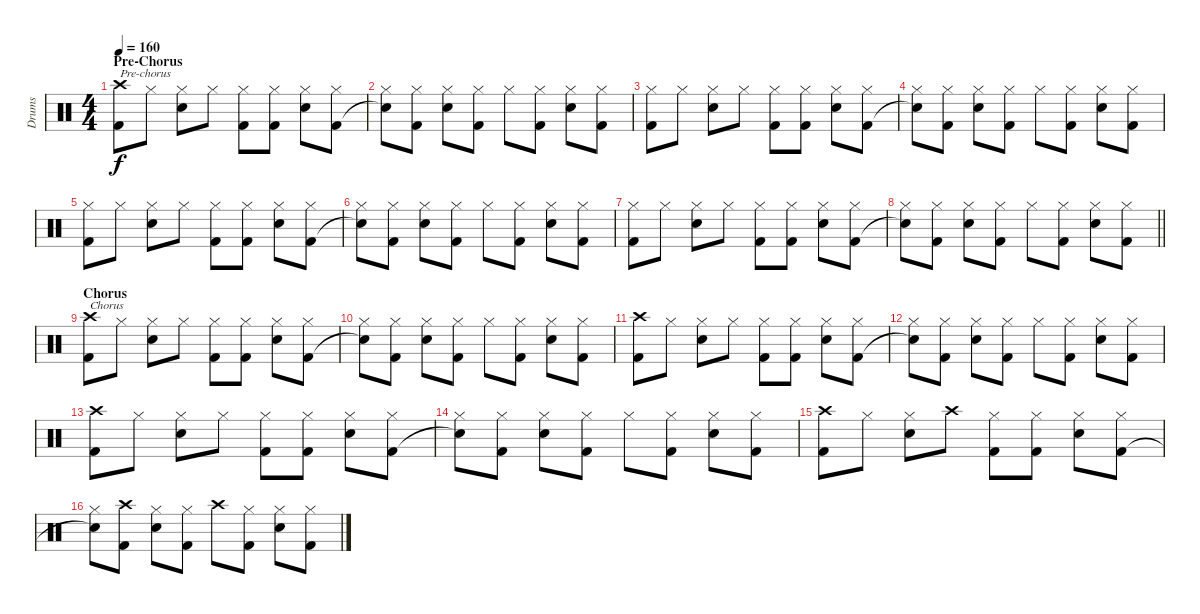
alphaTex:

\track ("Drums" "Drums") {instrument percussion}
\staff {score}
\articulation defaults
\ts (4 4)
\section ("" "Pre-Chorus")
\tempo 160
\clef neutral
\ks c
("Crash high (hit)" "Kick (hit) 2").8{txt "Pre-chorus" dy f} "Hi-Hat (closed)".8 ("Hi-Hat (closed)" "Electric Snare (hit)").8 "Hi-Hat (closed)".8 ("Hi-Hat (closed)" "Kick (hit) 2").8 ("Hi-Hat (closed)" "Kick (hit) 2").8 ("Hi-Hat (closed)" "Electric Snare (hit)").8 ("Hi-Hat (closed)" "Kick (hit) 2").8 |
("Hi-Hat (closed)" "Snare (hit)"{t}).8 ("Hi-Hat (closed)" "Kick (hit) 2").8 ("Hi-Hat (closed)" "Electric Snare (hit)").8 ("Hi-Hat (closed)" "Kick (hit) 2").8 "Hi-Hat (closed)".8 ("Hi-Hat (closed)" "Kick (hit) 2").8 ("Hi-Hat (closed)" "Electric Snare (hit)").8 ("Hi-Hat (closed)" "Kick (hit) 2").8 |
("Hi-Hat (closed)" "Kick (hit) 2").8 "Hi-Hat (closed)".8 ("Hi-Hat (closed)" "Electric Snare (hit)").8 "Hi-Hat (closed)".8 ("Hi-Hat (closed)" "Kick (hit) 2").8 ("Hi-Hat (closed)" "Kick (hit) 2").8 ("Hi-Hat (closed)" "Electric Snare (hit)").8 ("Hi-Hat (closed)" "Kick (hit) 2").8 |
("Hi-Hat (closed)" "Snare (hit)"{t}).8 ("Hi-Hat (closed)" "Kick (hit) 2").8 ("Hi-Hat (closed)" "Electric Snare (hit)").8 ("Hi-Hat (closed)" "Kick (hit) 2").8 "Hi-Hat (closed)".8 ("Hi-Hat (closed)" "Kick (hit) 2").8 ("Hi-Hat (closed)" "Electric Snare (hit)").8 ("Hi-Hat (closed)" "Kick (hit) 2").8 |
("Hi-Hat (closed)" "Kick (hit) 2").8 "Hi-Hat (closed)".8 ("Hi-Hat (closed)" "Electric Snare (hit)").8 "Hi-Hat (closed)".8 ("Hi-Hat (closed)" "Kick (hit) 2").8 ("Hi-Hat (closed)" "Kick (hit) 2").8 ("Hi-Hat (closed)" "Electric Snare (hit)").8 ("Hi-Hat (closed)" "Kick (hit) 2").8 |
("Hi-Hat (closed)" "Snare (hit)"{t}).8 ("Hi-Hat (closed)" "Kick (hit) 2").8 ("Hi-Hat (closed)" "Electric Snare (hit)").8 ("Hi-Hat (closed)" "Kick (hit) 2").8 "Hi-Hat (closed)".8 ("Hi-Hat (closed)" "Kick (hit) 2").8 ("Hi-Hat (closed)" "Electric Snare (hit)").8 ("Hi-Hat (closed)" "Kick (hit) 2").8 |
("Hi-Hat (closed)" "Kick (hit) 2").8 "Hi-Hat (closed)".8 ("Hi-Hat (closed)" "Electric Snare (hit)").8 "Hi-Hat (closed)".8 ("Hi-Hat (closed)" "Kick (hit) 2").8 ("Hi-Hat (closed)" "Kick (hit) 2").8 ("Hi-Hat (closed)" "Electric Snare (hit)").8 ("Hi-Hat (closed)" "Kick (hit) 2").8 |
\barLineRight lightlight
("Hi-Hat (closed)" "Snare (hit)"{t}).8 ("Hi-Hat (closed)" "Kick (hit) 2").8 ("Hi-Hat (closed)" "Electric Snare (hit)").8 ("Hi-Hat (closed)" "Kick (hit) 2").8 "Hi-Hat (closed)".8 ("Hi-Hat (closed)" "Kick (hit) 2").8 ("Hi-Hat (closed)" "Electric Snare (hit)").8 ("Hi-Hat (closed)" "Kick (hit) 2").8 |
\section ("" "Chorus")
("Crash high (hit)" "Kick (hit) 2").8{txt "Chorus"} "Hi-Hat (closed)".8 ("Hi-Hat (closed)" "Electric Snare (hit)").8 "Hi-Hat (closed)".8 ("Hi-Hat (closed)" "Kick (hit) 2").8 ("Hi-Hat (closed)" "Kick (hit) 2").8 ("Hi-Hat (closed)" "Electric Snare (hit)").8 ("Hi-Hat (closed)" "Kick (hit) 2").8 |
("Hi-Hat (closed)" "Snare (hit)"{t}).8 ("Hi-Hat (closed)" "Kick (hit) 2").8 ("Hi-Hat (closed)" "Electric Snare (hit)").8 ("Hi-Hat (closed)" "Kick (hit) 2").8 "Hi-Hat (closed)".8 ("Hi-Hat (closed)" "Kick (hit) 2").8 ("Hi-Hat (closed)" "Electric Snare (hit)").8 ("Hi-Hat (closed)" "Kick (hit) 2").8 |
("Crash high (hit)" "Kick (hit) 2").8 "Hi-Hat (closed)".8 ("Hi-Hat (closed)" "Electric Snare (hit)").8 "Hi-Hat (closed)".8 ("Hi-Hat (closed)" "Kick (hit) 2").8 ("Hi-Hat (closed)" "Kick (hit) 2").8 ("Hi-Hat (closed)" "Electric Snare (hit)").8 ("Hi-Hat (closed)" "Kick (hit) 2").8 |
("Hi-Hat (closed)" "Snare (hit)"{t}).8 ("Hi-Hat (closed)" "Kick (hit) 2").8 ("Hi-Hat (closed)" "Electric Snare (hit)").8 ("Hi-Hat (closed)" "Kick (hit) 2").8 "Hi-Hat (closed)".8 ("Hi-Hat (closed)" "Kick (hit) 2").8 ("Hi-Hat (closed)" "Electric Snare (hit)").8 ("Hi-Hat (closed)" "Kick (hit) 2").8 |
("Crash high (hit)" "Kick (hit) 2").8 "Hi-Hat (closed)".8 ("Hi-Hat (closed)" "Electric Snare (hit)").8 "Hi-Hat (closed)".8 ("Hi-Hat (closed)" "Kick (hit) 2").8 ("Hi-Hat (closed)" "Kick (hit) 2").8 ("Hi-Hat (closed)" "Electric Snare (hit)").8 ("Hi-Hat (closed)" "Kick (hit) 2").8 |
("Hi-Hat (closed)" "Snare (hit)"{t}).8 ("Hi-Hat (closed)" "Kick (hit) 2").8 ("Hi-Hat (closed)" "Electric Snare (hit)").8 ("Hi-Hat (closed)" "Kick (hit) 2").8 "Hi-Hat (closed)".8 ("Hi-Hat (closed)" "Kick (hit) 2").8 ("Hi-Hat (closed)" "Electric Snare (hit)").8 ("Hi-Hat (closed)" "Kick (hit) 2").8 |
("Crash high (hit)" "Kick (hit) 2").8 "Hi-Hat (closed)".8 ("Hi-Hat (closed)" "Electric Snare (hit)").8 "Crash high (hit)".8 ("Hi-Hat (closed)" "Kick (hit) 2").8 ("Hi-Hat (closed)" "Kick (hit) 2").8 ("Hi-Hat (closed)" "Electric Snare (hit)").8 ("Hi-Hat (closed)" "Kick (hit) 2").8 |
("Hi-Hat (closed)" "Snare (hit)"{t}).8 ("Crash high (hit)" "Kick (hit) 2").8 ("Hi-Hat (closed)" "Electric Snare (hit)").8 ("Hi-Hat (closed)" "Kick (hit) 2").8 "Crash high (hit)".8 ("Hi-Hat (closed)" "Kick (hit) 2").8 ("Hi-Hat (closed)" "Electric Snare (hit)").8 ("Hi-Hat (closed)" "Kick (hit) 2").8
